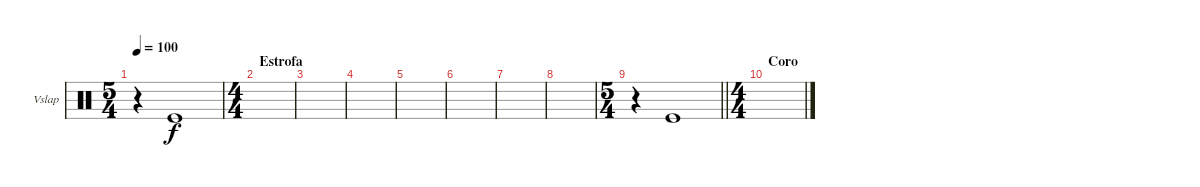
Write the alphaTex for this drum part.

\defaultSystemsLayout 4
\bracketExtendMode groupsimilarinstruments
\firstSystemTrackNameOrientation horizontal
\otherSystemsTrackNameOrientation horizontal
\track ("Vibraslap" "Vslap") {instrument percussion}
\staff {score}
\articulation defaults
\ts (5 4)
\tempo 100
\clef neutral
\scale
0.390805
\ks c
r.4{dy f} "Kick (hit)".1 |
\ts (4 4)
\section ("" "Estrofa")
\scale
0.390805 |
\scale
0.333333 |
\scale
0.333333 |
\scale
0.333333 |
\scale
0.333333 |
\scale
0.333333 |
\scale
0.333333 |
\ts (5 4)
\scale
0.390805
\barLineRight lightlight
r.4 "Kick (hit)".1 |
\ts (4 4)
\section ("" "Coro")
\scale
0.390805 |
\scale
0.218391 |
\scale
0.333333 |
\scale
0.333333 |
\scale
0.333333 |
\scale
0.263889 |
\scale
0.263889
